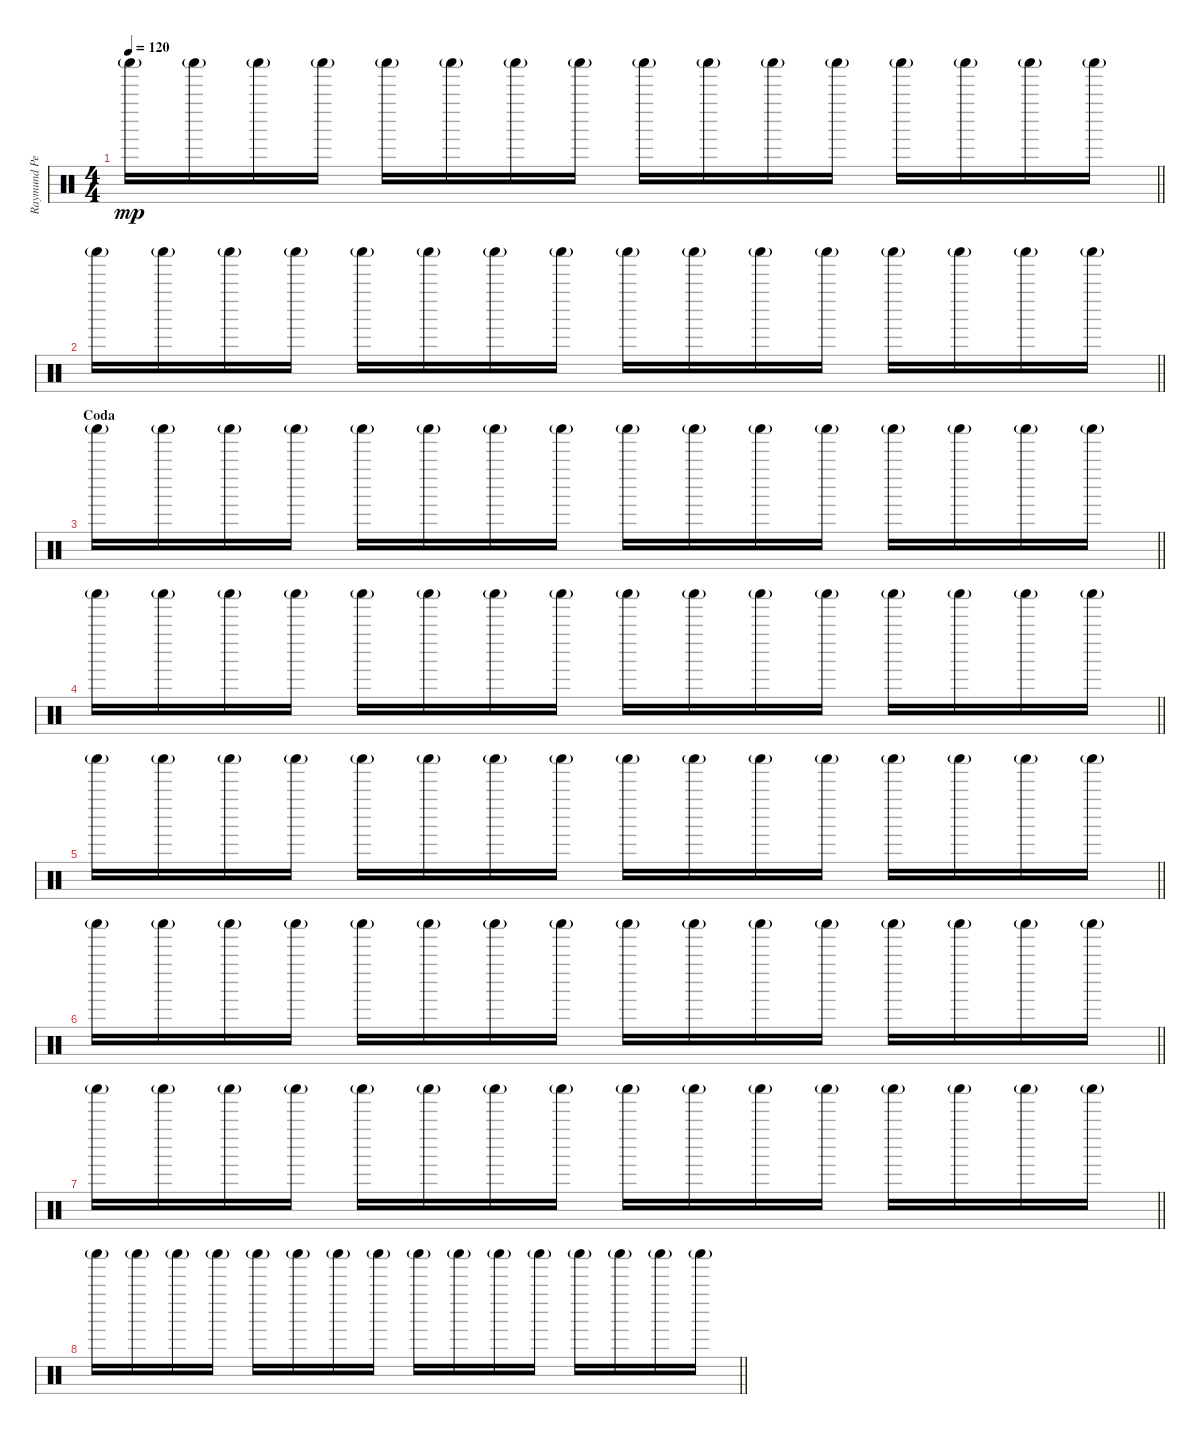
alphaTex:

\track ("Raymund Percussion" "Raymund Pe") {instrument percussion}
\staff {score}
\articulation defaults
\ts (4 4)
\tempo 120
\clef neutral
\barLineRight lightlight
\ks c "Shaker (hit)"{g}.16{dy mp} "Shaker (hit)"{g}.16 "Shaker (hit)"{g}.16 "Shaker (hit)"{g}.16 "Shaker (hit)"{g}.16 "Shaker (hit)"{g}.16 "Shaker (hit)"{g}.16 "Shaker (hit)"{g}.16 "Shaker (hit)"{g}.16 "Shaker (hit)"{g}.16 "Shaker (hit)"{g}.16 "Shaker (hit)"{g}.16 "Shaker (hit)"{g}.16 "Shaker (hit)"{g}.16 "Shaker (hit)"{g}.16 "Shaker (hit)"{g}.16
|
\barLineRight lightlight "Shaker (hit)"{g}.16 "Shaker (hit)"{g}.16 "Shaker (hit)"{g}.16 "Shaker (hit)"{g}.16 "Shaker (hit)"{g}.16 "Shaker (hit)"{g}.16 "Shaker (hit)"{g}.16 "Shaker (hit)"{g}.16 "Shaker (hit)"{g}.16 "Shaker (hit)"{g}.16 "Shaker (hit)"{g}.16 "Shaker (hit)"{g}.16 "Shaker (hit)"{g}.16 "Shaker (hit)"{g}.16 "Shaker (hit)"{g}.16 "Shaker (hit)"{g}.16
|
\section ("" "Coda")
\barLineRight lightlight "Shaker (hit)"{g}.16 "Shaker (hit)"{g}.16 "Shaker (hit)"{g}.16 "Shaker (hit)"{g}.16 "Shaker (hit)"{g}.16 "Shaker (hit)"{g}.16 "Shaker (hit)"{g}.16 "Shaker (hit)"{g}.16 "Shaker (hit)"{g}.16 "Shaker (hit)"{g}.16 "Shaker (hit)"{g}.16 "Shaker (hit)"{g}.16 "Shaker (hit)"{g}.16 "Shaker (hit)"{g}.16 "Shaker (hit)"{g}.16 "Shaker (hit)"{g}.16
|
\barLineRight lightlight "Shaker (hit)"{g}.16 "Shaker (hit)"{g}.16 "Shaker (hit)"{g}.16 "Shaker (hit)"{g}.16 "Shaker (hit)"{g}.16 "Shaker (hit)"{g}.16 "Shaker (hit)"{g}.16 "Shaker (hit)"{g}.16 "Shaker (hit)"{g}.16 "Shaker (hit)"{g}.16 "Shaker (hit)"{g}.16 "Shaker (hit)"{g}.16 "Shaker (hit)"{g}.16 "Shaker (hit)"{g}.16 "Shaker (hit)"{g}.16 "Shaker (hit)"{g}.16
|
\barLineRight lightlight "Shaker (hit)"{g}.16 "Shaker (hit)"{g}.16 "Shaker (hit)"{g}.16 "Shaker (hit)"{g}.16 "Shaker (hit)"{g}.16 "Shaker (hit)"{g}.16 "Shaker (hit)"{g}.16 "Shaker (hit)"{g}.16 "Shaker (hit)"{g}.16 "Shaker (hit)"{g}.16 "Shaker (hit)"{g}.16 "Shaker (hit)"{g}.16 "Shaker (hit)"{g}.16 "Shaker (hit)"{g}.16 "Shaker (hit)"{g}.16 "Shaker (hit)"{g}.16
|
\barLineRight lightlight "Shaker (hit)"{g}.16 "Shaker (hit)"{g}.16 "Shaker (hit)"{g}.16 "Shaker (hit)"{g}.16 "Shaker (hit)"{g}.16 "Shaker (hit)"{g}.16 "Shaker (hit)"{g}.16 "Shaker (hit)"{g}.16 "Shaker (hit)"{g}.16 "Shaker (hit)"{g}.16 "Shaker (hit)"{g}.16 "Shaker (hit)"{g}.16 "Shaker (hit)"{g}.16 "Shaker (hit)"{g}.16 "Shaker (hit)"{g}.16 "Shaker (hit)"{g}.16
|
\barLineRight lightlight "Shaker (hit)"{g}.16 "Shaker (hit)"{g}.16 "Shaker (hit)"{g}.16 "Shaker (hit)"{g}.16 "Shaker (hit)"{g}.16 "Shaker (hit)"{g}.16 "Shaker (hit)"{g}.16 "Shaker (hit)"{g}.16 "Shaker (hit)"{g}.16 "Shaker (hit)"{g}.16 "Shaker (hit)"{g}.16 "Shaker (hit)"{g}.16 "Shaker (hit)"{g}.16 "Shaker (hit)"{g}.16 "Shaker (hit)"{g}.16 "Shaker (hit)"{g}.16
|
\barLineRight lightlight "Shaker (hit)"{g}.16 "Shaker (hit)"{g}.16 "Shaker (hit)"{g}.16 "Shaker (hit)"{g}.16 "Shaker (hit)"{g}.16 "Shaker (hit)"{g}.16 "Shaker (hit)"{g}.16 "Shaker (hit)"{g}.16 "Shaker (hit)"{g}.16 "Shaker (hit)"{g}.16 "Shaker (hit)"{g}.16 "Shaker (hit)"{g}.16 "Shaker (hit)"{g}.16 "Shaker (hit)"{g}.16 "Shaker (hit)"{g}.16 "Shaker (hit)"{g}.16
